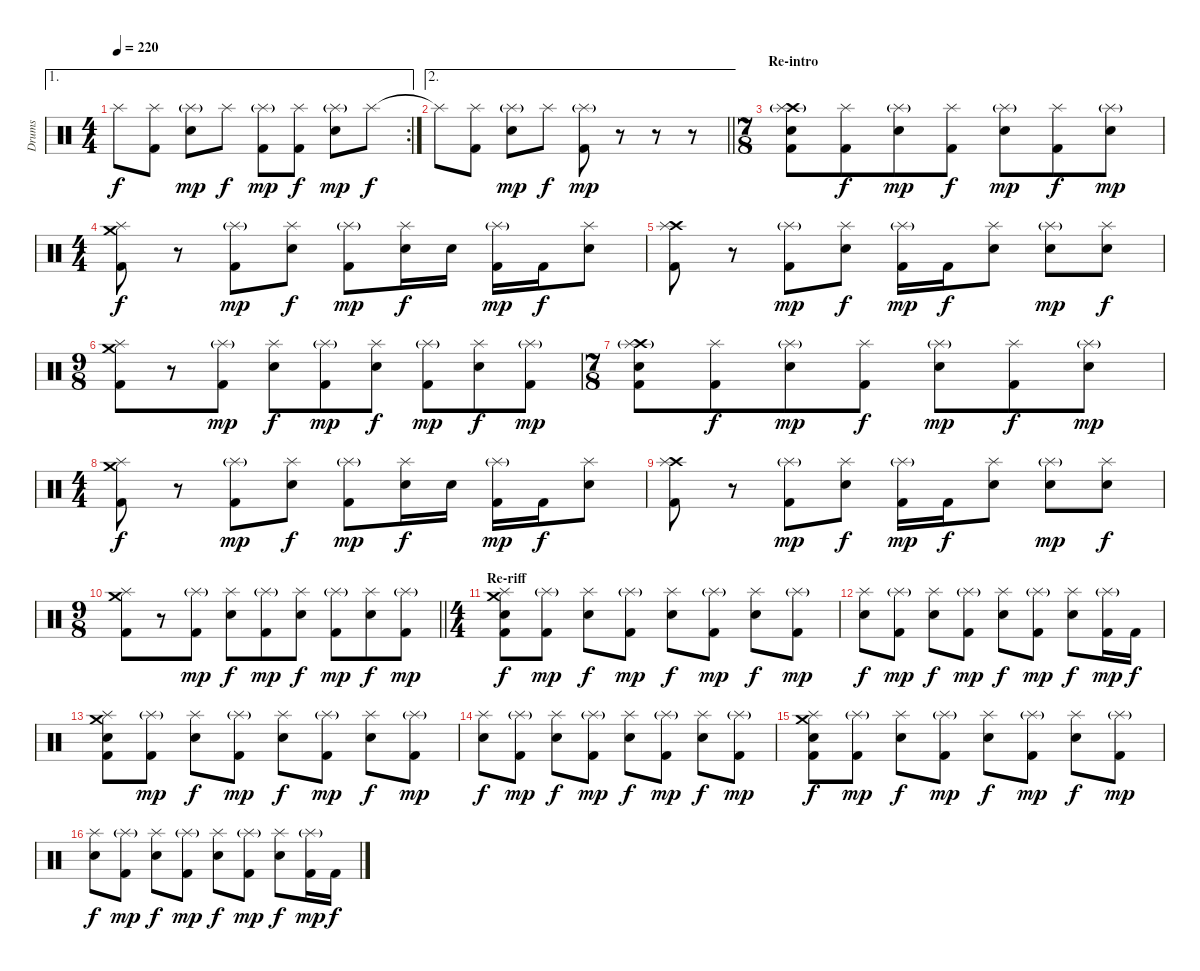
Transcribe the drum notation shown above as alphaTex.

\track ("Drums" "Drums") {instrument percussion}
\staff {score}
\articulation defaults
\ae 1
\rc 2
\ts (4 4)
\tempo 220
\clef neutral
\ks c "Splash (hit)"{t}.8{dy f}
("Splash (hit)" "Kick (hit) 2").8 ("Splash (hit)"{g} "Electric Snare (hit)").8{dy mp} "Splash (hit)".8{dy f} ("Splash (hit)"{g} "Kick (hit) 2").8{dy mp} ("Splash (hit)" "Kick (hit) 2").8{dy f} ("Splash (hit)"{g} "Electric Snare (hit)").8{dy mp} "Splash (hit)".8{dy f} |
\ae 2
\barLineRight lightlight "Splash (hit)"{t}.8
("Splash (hit)" "Kick (hit) 2").8 ("Splash (hit)"{g} "Electric Snare (hit)").8{dy mp} "Splash (hit)".8{dy f} ("Splash (hit)"{g} "Kick (hit) 2").8{dy mp} r.8 r.8 r.8 |
\ts (7 8)
\section ("" "Re-intro")
("Crash high (hit)" "Splash (hit)"{g} "Electric Snare (hit)" "Kick (hit) 2").8 ("Splash (hit)" "Kick (hit) 2").8{dy f} ("Splash (hit)"{g} "Electric Snare (hit)").8{dy mp} ("Splash (hit)" "Kick (hit) 2").8{dy f} ("Splash (hit)"{g} "Electric Snare (hit)").8{dy mp} ("Splash (hit)" "Kick (hit) 2").8{dy f} ("Splash (hit)"{g} "Electric Snare (hit)").8{dy mp} |
\ts (4 4)
("Crash medium (hit)" "Splash (hit)" "Kick (hit) 2").8{dy f} r.8 ("Splash (hit)"{g} "Kick (hit) 2").8{dy mp} ("Splash (hit)" "Electric Snare (hit)").8{dy f} ("Splash (hit)"{g} "Kick (hit) 2").8{dy mp} ("Splash (hit)" "Electric Snare (hit)").16{dy f} "Electric Snare (hit)".16 ("Splash (hit)"{g} "Kick (hit) 2").16{dy mp} "Kick (hit) 2".16{dy f} ("Splash (hit)" "Electric Snare (hit)").8 |
("Crash high (hit)" "Splash (hit)" "Kick (hit) 2").8 r.8 ("Splash (hit)"{g} "Kick (hit) 2").8{dy mp} ("Splash (hit)" "Electric Snare (hit)").8{dy f} ("Splash (hit)"{g} "Kick (hit) 2").16{dy mp} "Kick (hit) 2".16{dy f} ("Splash (hit)" "Electric Snare (hit)").8 ("Splash (hit)"{g} "Electric Snare (hit)").8{dy mp} ("Splash (hit)" "Electric Snare (hit)").8{dy f} |
\ts (9 8)
("Crash medium (hit)" "Splash (hit)" "Kick (hit) 2").8 r.8 ("Splash (hit)"{g} "Kick (hit) 2").8{dy mp} ("Splash (hit)" "Electric Snare (hit)").8{dy f} ("Splash (hit)"{g} "Kick (hit) 2").8{dy mp} ("Splash (hit)" "Electric Snare (hit)").8{dy f} ("Splash (hit)"{g} "Kick (hit) 2").8{dy mp} ("Splash (hit)" "Electric Snare (hit)").8{dy f} ("Splash (hit)"{g} "Kick (hit) 2").8{dy mp} |
\ts (7 8)
("Crash high (hit)" "Splash (hit)"{g} "Electric Snare (hit)" "Kick (hit) 2").8 ("Splash (hit)" "Kick (hit) 2").8{dy f} ("Splash (hit)"{g} "Electric Snare (hit)").8{dy mp} ("Splash (hit)" "Kick (hit) 2").8{dy f} ("Splash (hit)"{g} "Electric Snare (hit)").8{dy mp} ("Splash (hit)" "Kick (hit) 2").8{dy f} ("Splash (hit)"{g} "Electric Snare (hit)").8{dy mp} |
\ts (4 4)
("Crash medium (hit)" "Splash (hit)" "Kick (hit) 2").8{dy f} r.8 ("Splash (hit)"{g} "Kick (hit) 2").8{dy mp} ("Splash (hit)" "Electric Snare (hit)").8{dy f} ("Splash (hit)"{g} "Kick (hit) 2").8{dy mp} ("Splash (hit)" "Electric Snare (hit)").16{dy f} "Electric Snare (hit)".16 ("Splash (hit)"{g} "Kick (hit) 2").16{dy mp} "Kick (hit) 2".16{dy f} ("Splash (hit)" "Electric Snare (hit)").8 |
("Crash high (hit)" "Splash (hit)" "Kick (hit) 2").8 r.8 ("Splash (hit)"{g} "Kick (hit) 2").8{dy mp} ("Splash (hit)" "Electric Snare (hit)").8{dy f} ("Splash (hit)"{g} "Kick (hit) 2").16{dy mp} "Kick (hit) 2".16{dy f} ("Splash (hit)" "Electric Snare (hit)").8 ("Splash (hit)"{g} "Electric Snare (hit)").8{dy mp} ("Splash (hit)" "Electric Snare (hit)").8{dy f} |
\ts (9 8)
\barLineRight lightlight
("Crash medium (hit)" "Splash (hit)" "Kick (hit) 2").8 r.8 ("Splash (hit)"{g} "Kick (hit) 2").8{dy mp} ("Splash (hit)" "Electric Snare (hit)").8{dy f} ("Splash (hit)"{g} "Kick (hit) 2").8{dy mp} ("Splash (hit)" "Electric Snare (hit)").8{dy f} ("Splash (hit)"{g} "Kick (hit) 2").8{dy mp} ("Splash (hit)" "Electric Snare (hit)").8{dy f} ("Splash (hit)"{g} "Kick (hit) 2").8{dy mp} |
\ts (4 4)
\section ("" "Re-riff")
("Crash medium (hit)" "Splash (hit)" "Electric Snare (hit)" "Kick (hit) 2").8{dy f} ("Splash (hit)"{g} "Kick (hit) 2").8{dy mp} ("Splash (hit)" "Electric Snare (hit)").8{dy f} ("Splash (hit)"{g} "Kick (hit) 2").8{dy mp} ("Splash (hit)" "Electric Snare (hit)").8{dy f} ("Splash (hit)"{g} "Kick (hit) 2").8{dy mp} ("Splash (hit)" "Electric Snare (hit)").8{dy f} ("Splash (hit)"{g} "Kick (hit) 2").8{dy mp} |
("Splash (hit)" "Electric Snare (hit)").8{dy f} ("Splash (hit)"{g} "Kick (hit) 2").8{dy mp} ("Splash (hit)" "Electric Snare (hit)").8{dy f} ("Splash (hit)"{g} "Kick (hit) 2").8{dy mp} ("Splash (hit)" "Electric Snare (hit)").8{dy f} ("Splash (hit)"{g} "Kick (hit) 2").8{dy mp} ("Splash (hit)" "Electric Snare (hit)").8{dy f} ("Splash (hit)"{g} "Kick (hit) 2").16{dy mp} "Kick (hit) 2".16{dy f} |
("Crash medium (hit)" "Splash (hit)" "Electric Snare (hit)" "Kick (hit) 2").8 ("Splash (hit)"{g} "Kick (hit) 2").8{dy mp} ("Splash (hit)" "Electric Snare (hit)").8{dy f} ("Splash (hit)"{g} "Kick (hit) 2").8{dy mp} ("Splash (hit)" "Electric Snare (hit)").8{dy f} ("Splash (hit)"{g} "Kick (hit) 2").8{dy mp} ("Splash (hit)" "Electric Snare (hit)").8{dy f} ("Splash (hit)"{g} "Kick (hit) 2").8{dy mp} |
("Splash (hit)" "Electric Snare (hit)").8{dy f} ("Splash (hit)"{g} "Kick (hit) 2").8{dy mp} ("Splash (hit)" "Electric Snare (hit)").8{dy f} ("Splash (hit)"{g} "Kick (hit) 2").8{dy mp} ("Splash (hit)" "Electric Snare (hit)").8{dy f} ("Splash (hit)"{g} "Kick (hit) 2").8{dy mp} ("Splash (hit)" "Electric Snare (hit)").8{dy f} ("Splash (hit)"{g} "Kick (hit) 2").8{dy mp} |
("Crash medium (hit)" "Splash (hit)" "Electric Snare (hit)" "Kick (hit) 2").8{dy f} ("Splash (hit)"{g} "Kick (hit) 2").8{dy mp} ("Splash (hit)" "Electric Snare (hit)").8{dy f} ("Splash (hit)"{g} "Kick (hit) 2").8{dy mp} ("Splash (hit)" "Electric Snare (hit)").8{dy f} ("Splash (hit)"{g} "Kick (hit) 2").8{dy mp} ("Splash (hit)" "Electric Snare (hit)").8{dy f} ("Splash (hit)"{g} "Kick (hit) 2").8{dy mp} |
("Splash (hit)" "Electric Snare (hit)").8{dy f} ("Splash (hit)"{g} "Kick (hit) 2").8{dy mp} ("Splash (hit)" "Electric Snare (hit)").8{dy f} ("Splash (hit)"{g} "Kick (hit) 2").8{dy mp} ("Splash (hit)" "Electric Snare (hit)").8{dy f} ("Splash (hit)"{g} "Kick (hit) 2").8{dy mp} ("Splash (hit)" "Electric Snare (hit)").8{dy f} ("Splash (hit)"{g} "Kick (hit) 2").16{dy mp} "Kick (hit) 2".16{dy f}
